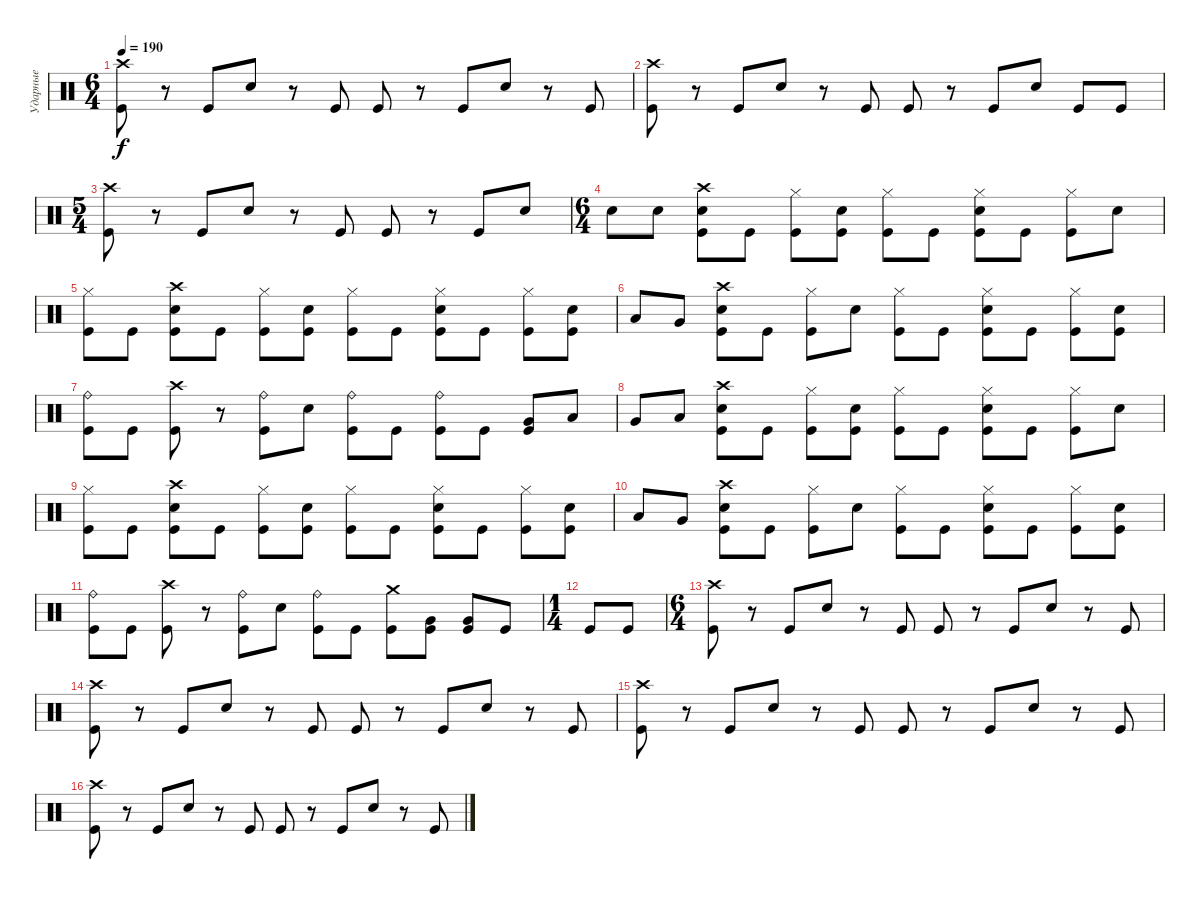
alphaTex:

\track ("Ударные" "Ударные") {instrument percussion}
\staff {score}
\articulation defaults
\ts (6 4)
\tempo 190
\clef neutral
\ks c
("Crash high (hit)" "Kick (hit)").8{dy f} r.8 "Kick (hit)".8 "Electric Snare (hit)".8 r.8 "Kick (hit)".8 "Kick (hit)".8 r.8 "Kick (hit)".8 "Electric Snare (hit)".8 r.8 "Kick (hit)".8 |
("Crash high (hit)" "Kick (hit)").8 r.8 "Kick (hit)".8 "Electric Snare (hit)".8 r.8 "Kick (hit)".8 "Kick (hit)".8 r.8 "Kick (hit)".8 "Electric Snare (hit)".8 "Kick (hit)".8 "Kick (hit)".8 |
\ts (5 4)
("Crash high (hit)" "Kick (hit)").8 r.8 "Kick (hit)".8 "Electric Snare (hit)".8 r.8 "Kick (hit)".8 "Kick (hit)".8 r.8 "Kick (hit)".8 "Electric Snare (hit)".8 |
\ts (6 4)
"Electric Snare (hit)".8 "Electric Snare (hit)".8 ("Crash high (hit)" "Electric Snare (hit)" "Kick (hit)").8 "Kick (hit)".8 ("Hi-Hat (closed)" "Kick (hit)").8 ("Electric Snare (hit)" "Kick (hit)").8 ("Hi-Hat (closed)" "Kick (hit)").8 "Kick (hit)".8 ("Hi-Hat (closed)" "Electric Snare (hit)" "Kick (hit)").8 "Kick (hit)".8 ("Hi-Hat (closed)" "Kick (hit)").8 "Electric Snare (hit)".8 |
("Hi-Hat (closed)" "Kick (hit)").8 "Kick (hit)".8 ("Crash high (hit)" "Electric Snare (hit)" "Kick (hit)").8 "Kick (hit)".8 ("Hi-Hat (closed)" "Kick (hit)").8 ("Electric Snare (hit)" "Kick (hit)").8 ("Hi-Hat (closed)" "Kick (hit)").8 "Kick (hit)".8 ("Hi-Hat (closed)" "Electric Snare (hit)" "Kick (hit)").8 "Kick (hit)".8 ("Hi-Hat (closed)" "Kick (hit)").8 ("Electric Snare (hit)" "Kick (hit)").8 |
"Low Tom (hit)".8 "Very Low Tom (hit)".8 ("Crash high (hit)" "Electric Snare (hit)" "Kick (hit)").8 "Kick (hit)".8 ("Hi-Hat (closed)" "Kick (hit)").8 "Electric Snare (hit)".8 ("Hi-Hat (closed)" "Kick (hit)").8 "Kick (hit)".8 ("Hi-Hat (closed)" "Electric Snare (hit)" "Kick (hit)").8 "Kick (hit)".8 ("Hi-Hat (closed)" "Kick (hit)").8 ("Electric Snare (hit)" "Kick (hit)").8 |
("Ride (bell)" "Kick (hit)").8 "Kick (hit)".8 ("Crash high (hit)" "Kick (hit)").8 r.8 ("Ride (bell)" "Kick (hit)").8 "Electric Snare (hit)".8 ("Ride (bell)" "Kick (hit)").8 "Kick (hit)".8 ("Ride (bell)" "Kick (hit)").8 "Kick (hit)".8 ("Very Low Tom (hit)" "Kick (hit)").8 "Low Tom (hit)".8 |
"Very Low Tom (hit)".8 "Low Tom (hit)".8 ("Crash high (hit)" "Electric Snare (hit)" "Kick (hit)").8 "Kick (hit)".8 ("Hi-Hat (closed)" "Kick (hit)").8 ("Electric Snare (hit)" "Kick (hit)").8 ("Hi-Hat (closed)" "Kick (hit)").8 "Kick (hit)".8 ("Hi-Hat (closed)" "Electric Snare (hit)" "Kick (hit)").8 "Kick (hit)".8 ("Hi-Hat (closed)" "Kick (hit)").8 "Electric Snare (hit)".8 |
("Hi-Hat (closed)" "Kick (hit)").8 "Kick (hit)".8 ("Crash high (hit)" "Electric Snare (hit)" "Kick (hit)").8 "Kick (hit)".8 ("Hi-Hat (closed)" "Kick (hit)").8 ("Electric Snare (hit)" "Kick (hit)").8 ("Hi-Hat (closed)" "Kick (hit)").8 "Kick (hit)".8 ("Hi-Hat (closed)" "Electric Snare (hit)" "Kick (hit)").8 "Kick (hit)".8 ("Hi-Hat (closed)" "Kick (hit)").8 ("Electric Snare (hit)" "Kick (hit)").8 |
"Low Tom (hit)".8 "Very Low Tom (hit)".8 ("Crash high (hit)" "Electric Snare (hit)" "Kick (hit)").8 "Kick (hit)".8 ("Hi-Hat (closed)" "Kick (hit)").8 "Electric Snare (hit)".8 ("Hi-Hat (closed)" "Kick (hit)").8 "Kick (hit)".8 ("Hi-Hat (closed)" "Electric Snare (hit)" "Kick (hit)").8 "Kick (hit)".8 ("Hi-Hat (closed)" "Kick (hit)").8 ("Electric Snare (hit)" "Kick (hit)").8 |
("Ride (bell)" "Kick (hit)").8 "Kick (hit)".8 ("Crash high (hit)" "Kick (hit)").8 r.8 ("Ride (bell)" "Kick (hit)").8 "Electric Snare (hit)".8 ("Ride (bell)" "Kick (hit)").8 "Kick (hit)".8 ("Crash medium (hit)" "Kick (hit)").8 ("Very Low Tom (hit)" "Kick (hit)").8 ("Very Low Tom (hit)" "Kick (hit)").8 "Kick (hit)".8 |
\ts (1 4)
"Kick (hit)".8 "Kick (hit)".8 |
\ts (6 4)
("Crash high (hit)" "Kick (hit)").8 r.8 "Kick (hit)".8 "Electric Snare (hit)".8 r.8 "Kick (hit)".8 "Kick (hit)".8 r.8 "Kick (hit)".8 "Electric Snare (hit)".8 r.8 "Kick (hit)".8 |
("Crash high (hit)" "Kick (hit)").8 r.8 "Kick (hit)".8 "Electric Snare (hit)".8 r.8 "Kick (hit)".8 "Kick (hit)".8 r.8 "Kick (hit)".8 "Electric Snare (hit)".8 r.8 "Kick (hit)".8 |
("Crash high (hit)" "Kick (hit)").8 r.8 "Kick (hit)".8 "Electric Snare (hit)".8 r.8 "Kick (hit)".8 "Kick (hit)".8 r.8 "Kick (hit)".8 "Electric Snare (hit)".8 r.8 "Kick (hit)".8 |
("Crash high (hit)" "Kick (hit)").8 r.8 "Kick (hit)".8 "Electric Snare (hit)".8 r.8 "Kick (hit)".8 "Kick (hit)".8 r.8 "Kick (hit)".8 "Electric Snare (hit)".8 r.8 "Kick (hit)".8
